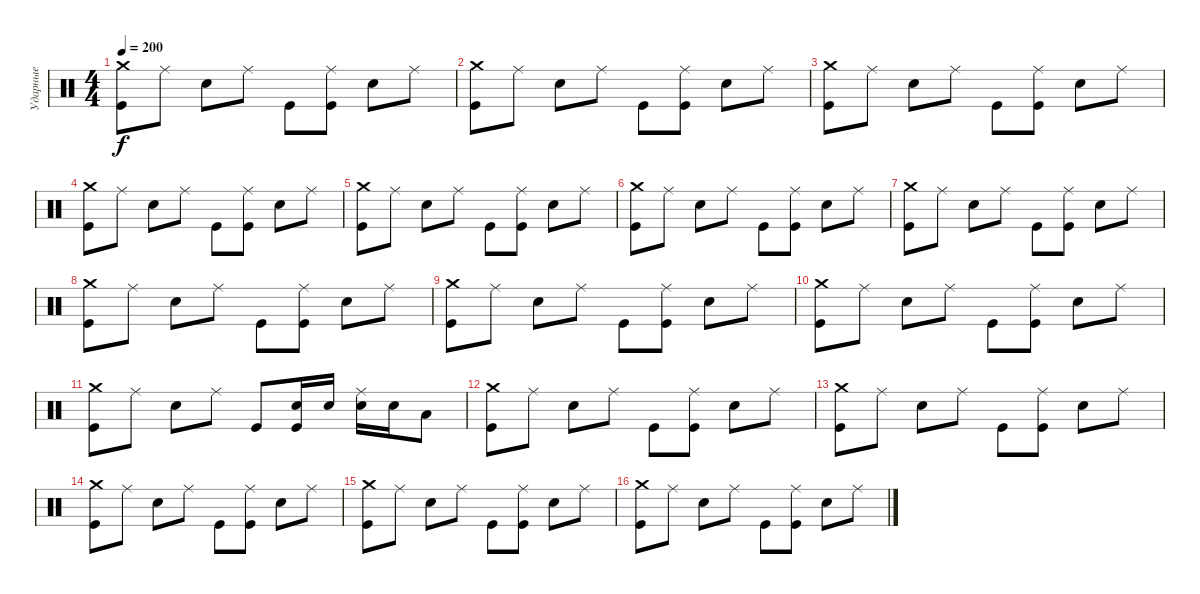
\track ("Ударные" "Ударные") {instrument percussion}
\staff {score}
\articulation defaults
\ts (4 4)
\tempo 200
\clef neutral
\ks c
("Crash medium (hit)" "Kick (hit)").8{dy f} "Ride (middle)".8 "Electric Snare (hit)".8 "Ride (middle)".8 "Kick (hit)".8 ("Ride (middle)" "Kick (hit)").8 "Electric Snare (hit)".8 "Ride (middle)".8 |
("Crash medium (hit)" "Kick (hit)").8 "Ride (middle)".8 "Electric Snare (hit)".8 "Ride (middle)".8 "Kick (hit)".8 ("Ride (middle)" "Kick (hit)").8 "Electric Snare (hit)".8 "Ride (middle)".8 |
("Crash medium (hit)" "Kick (hit)").8 "Ride (middle)".8 "Electric Snare (hit)".8 "Ride (middle)".8 "Kick (hit)".8 ("Ride (middle)" "Kick (hit)").8 "Electric Snare (hit)".8 "Ride (middle)".8 |
("Crash medium (hit)" "Kick (hit)").8 "Ride (middle)".8 "Electric Snare (hit)".8 "Ride (middle)".8 "Kick (hit)".8 ("Ride (middle)" "Kick (hit)").8 "Electric Snare (hit)".8 "Ride (middle)".8 |
("Crash medium (hit)" "Kick (hit)").8 "Ride (middle)".8 "Electric Snare (hit)".8 "Ride (middle)".8 "Kick (hit)".8 ("Ride (middle)" "Kick (hit)").8 "Electric Snare (hit)".8 "Ride (middle)".8 |
("Crash medium (hit)" "Kick (hit)").8 "Ride (middle)".8 "Electric Snare (hit)".8 "Ride (middle)".8 "Kick (hit)".8 ("Ride (middle)" "Kick (hit)").8 "Electric Snare (hit)".8 "Ride (middle)".8 |
("Crash medium (hit)" "Kick (hit)").8 "Ride (middle)".8 "Electric Snare (hit)".8 "Ride (middle)".8 "Kick (hit)".8 ("Ride (middle)" "Kick (hit)").8 "Electric Snare (hit)".8 "Ride (middle)".8 |
("Crash medium (hit)" "Kick (hit)").8 "Ride (middle)".8 "Electric Snare (hit)".8 "Ride (middle)".8 "Kick (hit)".8 ("Ride (middle)" "Kick (hit)").8 "Electric Snare (hit)".8 "Ride (middle)".8 |
("Crash medium (hit)" "Kick (hit)").8 "Ride (middle)".8 "Electric Snare (hit)".8 "Ride (middle)".8 "Kick (hit)".8 ("Ride (middle)" "Kick (hit)").8 "Electric Snare (hit)".8 "Ride (middle)".8 |
("Crash medium (hit)" "Kick (hit)").8 "Ride (middle)".8 "Electric Snare (hit)".8 "Ride (middle)".8 "Kick (hit)".8 ("Ride (middle)" "Kick (hit)").8 "Electric Snare (hit)".8 "Ride (middle)".8 |
("Crash medium (hit)" "Kick (hit)").8 "Ride (middle)".8 "Electric Snare (hit)".8 "Ride (middle)".8 "Kick (hit)".8 ("Electric Snare (hit)" "Kick (hit)").16 "Electric Snare (hit)".16 ("Ride (middle)" "Electric Snare (hit)").16 "Electric Snare (hit)".16 "Low Tom (hit)".8 |
("Crash medium (hit)" "Kick (hit)").8 "Ride (middle)".8 "Electric Snare (hit)".8 "Ride (middle)".8 "Kick (hit)".8 ("Ride (middle)" "Kick (hit)").8 "Electric Snare (hit)".8 "Ride (middle)".8 |
("Crash medium (hit)" "Kick (hit)").8 "Ride (middle)".8 "Electric Snare (hit)".8 "Ride (middle)".8 "Kick (hit)".8 ("Ride (middle)" "Kick (hit)").8 "Electric Snare (hit)".8 "Ride (middle)".8 |
("Crash medium (hit)" "Kick (hit)").8 "Ride (middle)".8 "Electric Snare (hit)".8 "Ride (middle)".8 "Kick (hit)".8 ("Ride (middle)" "Kick (hit)").8 "Electric Snare (hit)".8 "Ride (middle)".8 |
("Crash medium (hit)" "Kick (hit)").8 "Ride (middle)".8 "Electric Snare (hit)".8 "Ride (middle)".8 "Kick (hit)".8 ("Ride (middle)" "Kick (hit)").8 "Electric Snare (hit)".8 "Ride (middle)".8 |
("Crash medium (hit)" "Kick (hit)").8 "Ride (middle)".8 "Electric Snare (hit)".8 "Ride (middle)".8 "Kick (hit)".8 ("Ride (middle)" "Kick (hit)").8 "Electric Snare (hit)".8 "Ride (middle)".8
